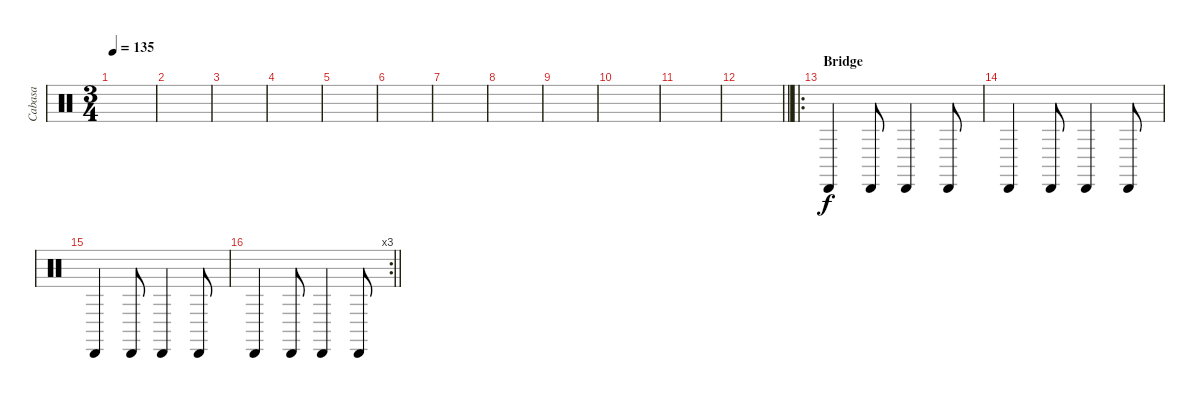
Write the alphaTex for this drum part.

\track ("Cabasa" "Cabasa") {instrument percussion}
\staff {score}
\articulation defaults
\ts (3 4)
\tempo 135
\clef neutral
\ks c
|
|
|
|
|
|
|
|
|
|
|
\barLineRight lightlight
|
\ro
\section ("" "Bridge")
"Cabasa (hit)".4 "Cabasa (hit)".8 "Cabasa (hit)".4 "Cabasa (hit)".8 |
"Cabasa (hit)".4 "Cabasa (hit)".8 "Cabasa (hit)".4 "Cabasa (hit)".8 |
"Cabasa (hit)".4 "Cabasa (hit)".8 "Cabasa (hit)".4 "Cabasa (hit)".8 |
\rc 3
\barLineRight lightlight "Cabasa (hit)".4 "Cabasa (hit)".8 "Cabasa (hit)".4 "Cabasa (hit)".8
